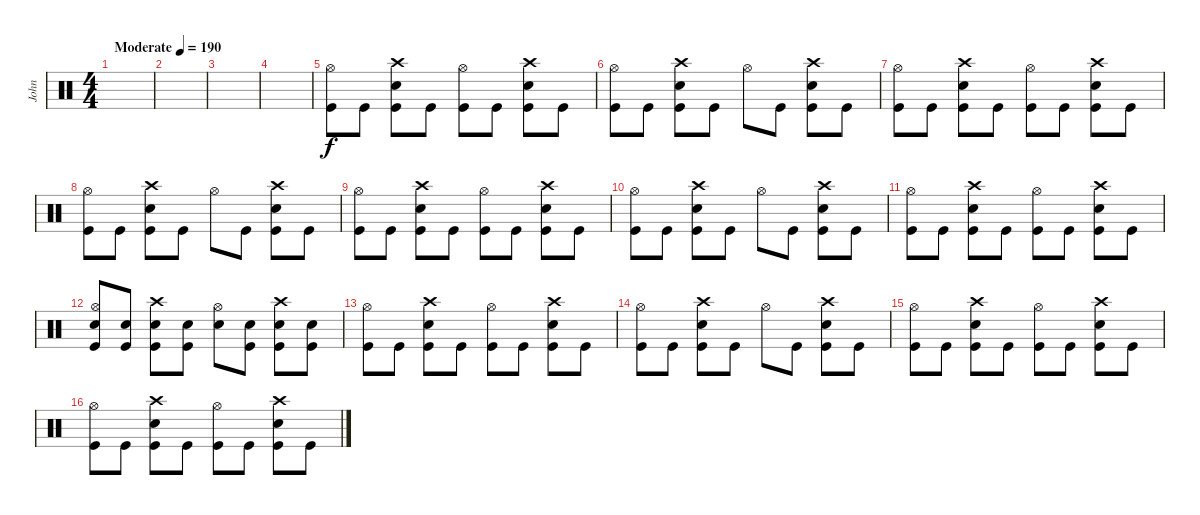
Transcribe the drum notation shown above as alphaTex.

\track ("John" "John") {instrument percussion}
\staff {score}
\articulation defaults
\ts (4 4)
\tempo (190 "Moderate")
\clef neutral
\ks c
|
|
|
|
("Kick (hit)" "Hi-Hat (open)").8 "Kick (hit)".8 ("Kick (hit)" "Snare (hit) 2" "Crash high (hit)").8 "Kick (hit)".8 ("Kick (hit)" "Hi-Hat (open)").8 "Kick (hit)".8 ("Kick (hit)" "Snare (hit) 2" "Crash high (hit)").8 "Kick (hit)".8 |
("Kick (hit)" "Hi-Hat (open)").8 "Kick (hit)".8 ("Kick (hit)" "Snare (hit) 2" "Crash high (hit)").8 "Kick (hit)".8 "Hi-Hat (open)".8 "Kick (hit)".8 ("Kick (hit)" "Snare (hit) 2" "Crash high (hit)").8 "Kick (hit)".8 |
("Kick (hit)" "Hi-Hat (open)").8 "Kick (hit)".8 ("Kick (hit)" "Snare (hit) 2" "Crash high (hit)").8 "Kick (hit)".8 ("Kick (hit)" "Hi-Hat (open)").8 "Kick (hit)".8 ("Kick (hit)" "Snare (hit) 2" "Crash high (hit)").8 "Kick (hit)".8 |
("Kick (hit)" "Hi-Hat (open)").8 "Kick (hit)".8 ("Kick (hit)" "Snare (hit) 2" "Crash high (hit)").8 "Kick (hit)".8 "Hi-Hat (open)".8 "Kick (hit)".8 ("Kick (hit)" "Snare (hit) 2" "Crash high (hit)").8 "Kick (hit)".8 |
("Kick (hit)" "Hi-Hat (open)").8 "Kick (hit)".8 ("Kick (hit)" "Snare (hit) 2" "Crash high (hit)").8 "Kick (hit)".8 ("Kick (hit)" "Hi-Hat (open)").8 "Kick (hit)".8 ("Kick (hit)" "Snare (hit) 2" "Crash high (hit)").8 "Kick (hit)".8 |
("Kick (hit)" "Hi-Hat (open)").8 "Kick (hit)".8 ("Kick (hit)" "Snare (hit) 2" "Crash high (hit)").8 "Kick (hit)".8 "Hi-Hat (open)".8 "Kick (hit)".8 ("Kick (hit)" "Snare (hit) 2" "Crash high (hit)").8 "Kick (hit)".8 |
("Kick (hit)" "Hi-Hat (open)").8 "Kick (hit)".8 ("Kick (hit)" "Snare (hit) 2" "Crash high (hit)").8 "Kick (hit)".8 ("Kick (hit)" "Hi-Hat (open)").8 "Kick (hit)".8 ("Kick (hit)" "Snare (hit) 2" "Crash high (hit)").8 "Kick (hit)".8 |
("Kick (hit)" "Snare (hit) 2" "Hi-Hat (open)").8 ("Kick (hit)" "Snare (hit) 2").8 ("Kick (hit)" "Snare (hit) 2" "Crash high (hit)").8 ("Kick (hit)" "Snare (hit) 2").8 ("Snare (hit) 2" "Hi-Hat (open)").8 ("Kick (hit)" "Snare (hit) 2").8 ("Kick (hit)" "Snare (hit) 2" "Crash high (hit)").8 ("Kick (hit)" "Snare (hit) 2").8 |
("Kick (hit)" "Hi-Hat (open)").8 "Kick (hit)".8 ("Kick (hit)" "Snare (hit) 2" "Crash high (hit)").8 "Kick (hit)".8 ("Kick (hit)" "Hi-Hat (open)").8 "Kick (hit)".8 ("Kick (hit)" "Snare (hit) 2" "Crash high (hit)").8 "Kick (hit)".8 |
("Kick (hit)" "Hi-Hat (open)").8 "Kick (hit)".8 ("Kick (hit)" "Snare (hit) 2" "Crash high (hit)").8 "Kick (hit)".8 "Hi-Hat (open)".8 "Kick (hit)".8 ("Kick (hit)" "Snare (hit) 2" "Crash high (hit)").8 "Kick (hit)".8 |
("Kick (hit)" "Hi-Hat (open)").8 "Kick (hit)".8 ("Kick (hit)" "Snare (hit) 2" "Crash high (hit)").8 "Kick (hit)".8 ("Kick (hit)" "Hi-Hat (open)").8 "Kick (hit)".8 ("Kick (hit)" "Snare (hit) 2" "Crash high (hit)").8 "Kick (hit)".8 |
("Kick (hit)" "Hi-Hat (open)").8 "Kick (hit)".8 ("Kick (hit)" "Snare (hit) 2" "Crash high (hit)").8 "Kick (hit)".8 ("Kick (hit)" "Hi-Hat (open)").8 "Kick (hit)".8 ("Kick (hit)" "Snare (hit) 2" "Crash high (hit)").8 "Kick (hit)".8
